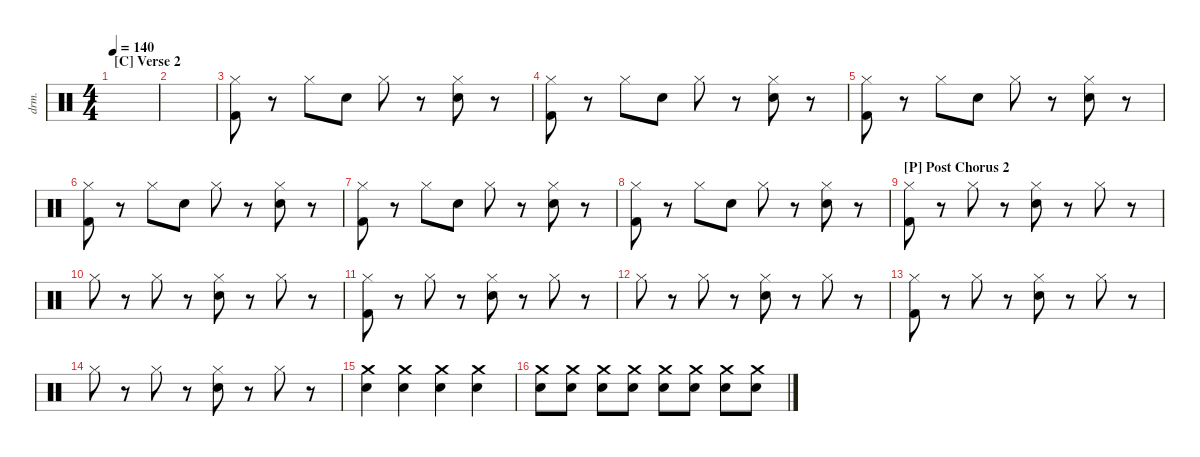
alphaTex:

\defaultSystemsLayout 4
\hideDynamics
\bracketExtendMode nobrackets
\otherSystemsTrackNameOrientation horizontal
\track ("Drumkit" "drm.") {instrument percussion}
\staff {score}
\articulation defaults
\ts (4 4)
\section ("C" "Verse 2")
\tempo 140
\clef neutral
\ks c
|
|
("Kick (hit) 2" "Hi-Hat (closed)").8{beam Down} r.8{beam Down} "Hi-Hat (closed)".8{beam Down} "Snare (hit) 2".8{beam Down} "Hi-Hat (closed)".8{beam Down} r.8{beam Down} ("Snare (hit) 2" "Hi-Hat (closed)").8{beam Down} r.8{beam Down} |
("Kick (hit) 2" "Hi-Hat (closed)").8{beam Down} r.8{beam Down} "Hi-Hat (closed)".8{beam Down} "Snare (hit) 2".8{beam Down} "Hi-Hat (closed)".8{beam Down} r.8{beam Down} ("Snare (hit) 2" "Hi-Hat (closed)").8{beam Down} r.8{beam Down} |
("Kick (hit) 2" "Hi-Hat (closed)").8{beam Down} r.8{beam Down} "Hi-Hat (closed)".8{beam Down} "Snare (hit) 2".8{beam Down} "Hi-Hat (closed)".8{beam Down} r.8{beam Down} ("Snare (hit) 2" "Hi-Hat (closed)").8{beam Down} r.8{beam Down} |
("Kick (hit) 2" "Hi-Hat (closed)").8{beam Down} r.8{beam Down} "Hi-Hat (closed)".8{beam Down} "Snare (hit) 2".8{beam Down} "Hi-Hat (closed)".8{beam Down} r.8{beam Down} ("Snare (hit) 2" "Hi-Hat (closed)").8{beam Down} r.8{beam Down} |
("Kick (hit) 2" "Hi-Hat (closed)").8{beam Down} r.8{beam Down} "Hi-Hat (closed)".8{beam Down} "Snare (hit) 2".8{beam Down} "Hi-Hat (closed)".8{beam Down} r.8{beam Down} ("Snare (hit) 2" "Hi-Hat (closed)").8{beam Down} r.8{beam Down} |
("Kick (hit) 2" "Hi-Hat (closed)").8{beam Down} r.8{beam Down} "Hi-Hat (closed)".8{beam Down} "Snare (hit) 2".8{beam Down} "Hi-Hat (closed)".8{beam Down} r.8{beam Down} ("Snare (hit) 2" "Hi-Hat (closed)").8{beam Down} r.8{beam Down} |
\section ("P" "Post Chorus 2")
("Kick (hit) 2" "Hi-Hat (closed)").8{beam Down} r.8{beam Down} "Hi-Hat (closed)".8{beam Down} r.8{beam Down} ("Hi-Hat (closed)" "Snare (hit) 2").8{beam Down} r.8{beam Down} "Hi-Hat (closed)".8{beam Down} r.8{beam Down} |
"Hi-Hat (closed)".8{beam Down} r.8{beam Down} "Hi-Hat (closed)".8{beam Down} r.8{beam Down} ("Hi-Hat (closed)" "Snare (hit) 2").8{beam Down} r.8{beam Down} "Hi-Hat (closed)".8{beam Down} r.8{beam Down} |
("Kick (hit) 2" "Hi-Hat (closed)").8{beam Down} r.8{beam Down} "Hi-Hat (closed)".8{beam Down} r.8{beam Down} ("Hi-Hat (closed)" "Snare (hit) 2").8{beam Down} r.8{beam Down} "Hi-Hat (closed)".8{beam Down} r.8{beam Down} |
"Hi-Hat (closed)".8{beam Down} r.8{beam Down} "Hi-Hat (closed)".8{beam Down} r.8{beam Down} ("Hi-Hat (closed)" "Snare (hit) 2").8{beam Down} r.8{beam Down} "Hi-Hat (closed)".8{beam Down} r.8{beam Down} |
("Kick (hit) 2" "Hi-Hat (closed)").8{beam Down} r.8{beam Down} "Hi-Hat (closed)".8{beam Down} r.8{beam Down} ("Hi-Hat (closed)" "Snare (hit) 2").8{beam Down} r.8{beam Down} "Hi-Hat (closed)".8{beam Down} r.8{beam Down} |
"Hi-Hat (closed)".8{beam Down} r.8{beam Down} "Hi-Hat (closed)".8{beam Down} r.8{beam Down} ("Hi-Hat (closed)" "Snare (hit) 2").8{beam Down} r.8{beam Down} "Hi-Hat (closed)".8{beam Down} r.8{beam Down} |
("Snare (hit) 2" "Crash medium (hit)").4{beam Down} ("Snare (hit) 2" "Crash medium (hit)").4{beam Down} ("Snare (hit) 2" "Crash medium (hit)").4{beam Down} ("Snare (hit) 2" "Crash medium (hit)").4{beam Down} |
("Snare (hit) 2" "Crash medium (hit)").8{beam Down} ("Snare (hit) 2" "Crash medium (hit)").8{beam Down} ("Snare (hit) 2" "Crash medium (hit)").8{beam Down} ("Snare (hit) 2" "Crash medium (hit)").8{beam Down} ("Snare (hit) 2" "Crash medium (hit)").8{beam Down} ("Snare (hit) 2" "Crash medium (hit)").8{beam Down} ("Snare (hit) 2" "Crash medium (hit)").8{beam Down} ("Snare (hit) 2" "Crash medium (hit)").8{beam Down}
